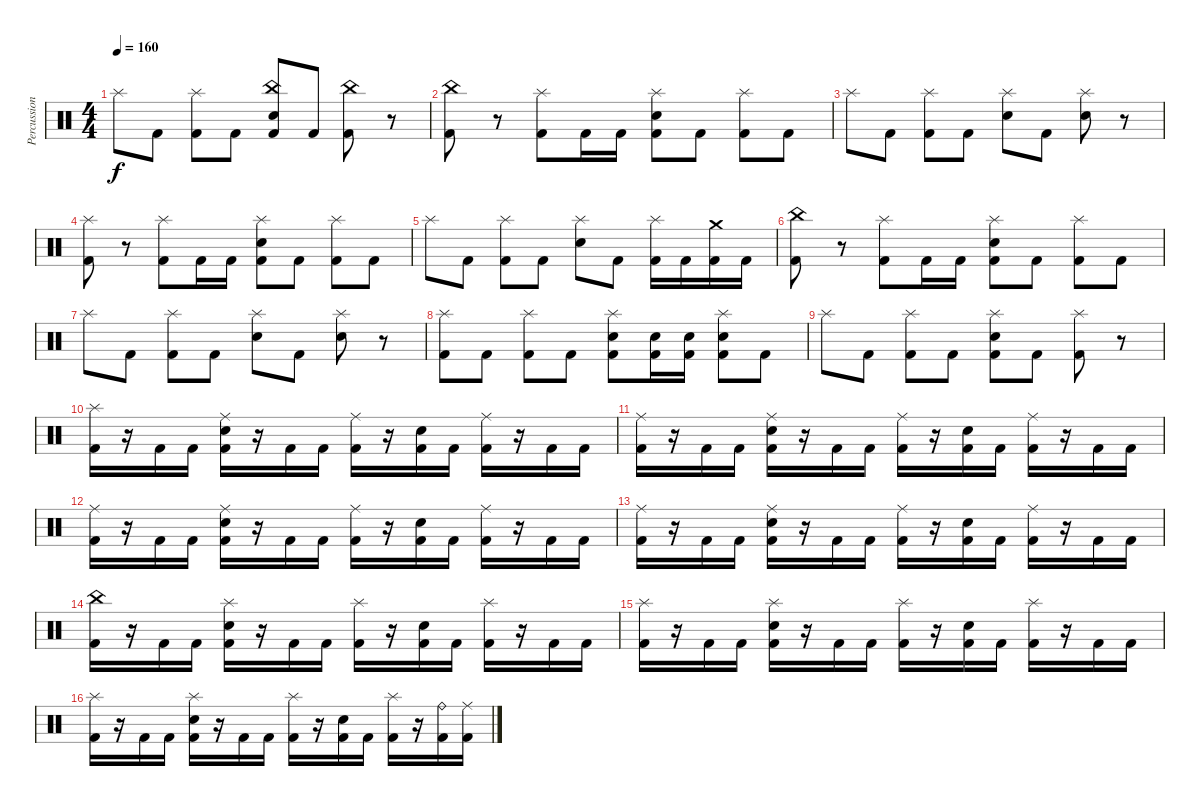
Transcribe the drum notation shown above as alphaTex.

\track ("Percussion" "Percussion") {instrument percussion}
\staff {score}
\articulation defaults
\ts (4 4)
\tempo 160
\clef neutral
\ks c "Splash (hit)".8{dy f} "Kick (hit) 2".8
("Splash (hit)" "Kick (hit) 2").8 "Kick (hit) 2".8 ("China (hit)" "Electric Snare (hit)" "Kick (hit) 2").8 "Kick (hit) 2".8 ("China (hit)" "Kick (hit) 2").8 r.8 |
("China (hit)" "Kick (hit) 2").8 r.8 ("Splash (hit)" "Kick (hit) 2").8 "Kick (hit) 2".16 "Kick (hit) 2".16 ("Splash (hit)" "Electric Snare (hit)" "Kick (hit) 2").8 "Kick (hit) 2".8 ("Splash (hit)" "Kick (hit) 2").8 "Kick (hit) 2".8 |
"Splash (hit)".8 "Kick (hit) 2".8 ("Splash (hit)" "Kick (hit) 2").8 "Kick (hit) 2".8 ("Splash (hit)" "Electric Snare (hit)").8 "Kick (hit) 2".8 ("Splash (hit)" "Electric Snare (hit)").8 r.8 |
("Splash (hit)" "Kick (hit) 2").8 r.8 ("Splash (hit)" "Kick (hit) 2").8 "Kick (hit) 2".16 "Kick (hit) 2".16 ("Splash (hit)" "Electric Snare (hit)" "Kick (hit) 2").8 "Kick (hit) 2".8 ("Splash (hit)" "Kick (hit) 2").8 "Kick (hit) 2".8 |
"Splash (hit)".8 "Kick (hit) 2".8 ("Splash (hit)" "Kick (hit) 2").8 "Kick (hit) 2".8 ("Splash (hit)" "Electric Snare (hit)").8 "Kick (hit) 2".8 ("Splash (hit)" "Kick (hit) 2").16 "Kick (hit) 2".16 ("Crash medium (hit)" "Kick (hit) 2").16 "Kick (hit) 2".16 |
("China (hit)" "Kick (hit) 2").8 r.8 ("Splash (hit)" "Kick (hit) 2").8 "Kick (hit) 2".16 "Kick (hit) 2".16 ("Splash (hit)" "Electric Snare (hit)" "Kick (hit) 2").8 "Kick (hit) 2".8 ("Splash (hit)" "Kick (hit) 2").8 "Kick (hit) 2".8 |
"Splash (hit)".8 "Kick (hit) 2".8 ("Splash (hit)" "Kick (hit) 2").8 "Kick (hit) 2".8 ("Splash (hit)" "Electric Snare (hit)").8 "Kick (hit) 2".8 ("Splash (hit)" "Electric Snare (hit)").8 r.8 |
("Splash (hit)" "Kick (hit) 2").8 "Kick (hit) 2".8 ("Splash (hit)" "Kick (hit) 2").8 "Kick (hit) 2".8 ("Splash (hit)" "Electric Snare (hit)" "Kick (hit) 2").8 ("Electric Snare (hit)" "Kick (hit) 2").16 ("Electric Snare (hit)" "Kick (hit) 2").16 ("Splash (hit)" "Electric Snare (hit)" "Kick (hit) 2").8 "Kick (hit) 2".8 |
"Splash (hit)".8 "Kick (hit) 2".8 ("Splash (hit)" "Kick (hit) 2").8 "Kick (hit) 2".8 ("Splash (hit)" "Electric Snare (hit)" "Kick (hit) 2").8 "Kick (hit) 2".8 ("Splash (hit)" "Kick (hit) 2").8 r.8 |
("Splash (hit)" "Kick (hit) 2").16 r.16 "Kick (hit) 2".16 "Kick (hit) 2".16 ("Ride (middle)" "Electric Snare (hit)" "Kick (hit) 2").16 r.16 "Kick (hit) 2".16 "Kick (hit) 2".16 ("Ride (middle)" "Kick (hit) 2").16 r.16 ("Electric Snare (hit)" "Kick (hit) 2").16 "Kick (hit) 2".16 ("Ride (middle)" "Kick (hit) 2").16 r.16 "Kick (hit) 2".16 "Kick (hit) 2".16 |
("Ride (middle)" "Kick (hit) 2").16 r.16 "Kick (hit) 2".16 "Kick (hit) 2".16 ("Ride (middle)" "Electric Snare (hit)" "Kick (hit) 2").16 r.16 "Kick (hit) 2".16 "Kick (hit) 2".16 ("Ride (middle)" "Kick (hit) 2").16 r.16 ("Electric Snare (hit)" "Kick (hit) 2").16 "Kick (hit) 2".16 ("Ride (middle)" "Kick (hit) 2").16 r.16 "Kick (hit) 2".16 "Kick (hit) 2".16 |
("Ride (middle)" "Kick (hit) 2").16 r.16 "Kick (hit) 2".16 "Kick (hit) 2".16 ("Ride (middle)" "Electric Snare (hit)" "Kick (hit) 2").16 r.16 "Kick (hit) 2".16 "Kick (hit) 2".16 ("Ride (middle)" "Kick (hit) 2").16 r.16 ("Electric Snare (hit)" "Kick (hit) 2").16 "Kick (hit) 2".16 ("Ride (middle)" "Kick (hit) 2").16 r.16 "Kick (hit) 2".16 "Kick (hit) 2".16 |
("Ride (middle)" "Kick (hit) 2").16 r.16 "Kick (hit) 2".16 "Kick (hit) 2".16 ("Ride (middle)" "Electric Snare (hit)" "Kick (hit) 2").16 r.16 "Kick (hit) 2".16 "Kick (hit) 2".16 ("Ride (middle)" "Kick (hit) 2").16 r.16 ("Electric Snare (hit)" "Kick (hit) 2").16 "Kick (hit) 2".16 ("Ride (middle)" "Kick (hit) 2").16 r.16 "Kick (hit) 2".16 "Kick (hit) 2".16 |
("China (hit)" "Kick (hit) 2").16 r.16 "Kick (hit) 2".16 "Kick (hit) 2".16 ("Splash (hit)" "Electric Snare (hit)" "Kick (hit) 2").16 r.16 "Kick (hit) 2".16 "Kick (hit) 2".16 ("Splash (hit)" "Kick (hit) 2").16 r.16 ("Electric Snare (hit)" "Kick (hit) 2").16 "Kick (hit) 2".16 ("Splash (hit)" "Kick (hit) 2").16 r.16 "Kick (hit) 2".16 "Kick (hit) 2".16 |
("Splash (hit)" "Kick (hit) 2").16 r.16 "Kick (hit) 2".16 "Kick (hit) 2".16 ("Splash (hit)" "Electric Snare (hit)" "Kick (hit) 2").16 r.16 "Kick (hit) 2".16 "Kick (hit) 2".16 ("Splash (hit)" "Kick (hit) 2").16 r.16 ("Electric Snare (hit)" "Kick (hit) 2").16 "Kick (hit) 2".16 ("Splash (hit)" "Kick (hit) 2").16 r.16 "Kick (hit) 2".16 "Kick (hit) 2".16 |
("Splash (hit)" "Kick (hit) 2").16 r.16 "Kick (hit) 2".16 "Kick (hit) 2".16 ("Splash (hit)" "Electric Snare (hit)" "Kick (hit) 2").16 r.16 "Kick (hit) 2".16 "Kick (hit) 2".16 ("Splash (hit)" "Kick (hit) 2").16 r.16 ("Electric Snare (hit)" "Kick (hit) 2").16 "Kick (hit) 2".16 ("Splash (hit)" "Kick (hit) 2").16 r.16 ("Ride (bell)" "Kick (hit) 2").16 ("Ride (middle)" "Kick (hit) 2").16
